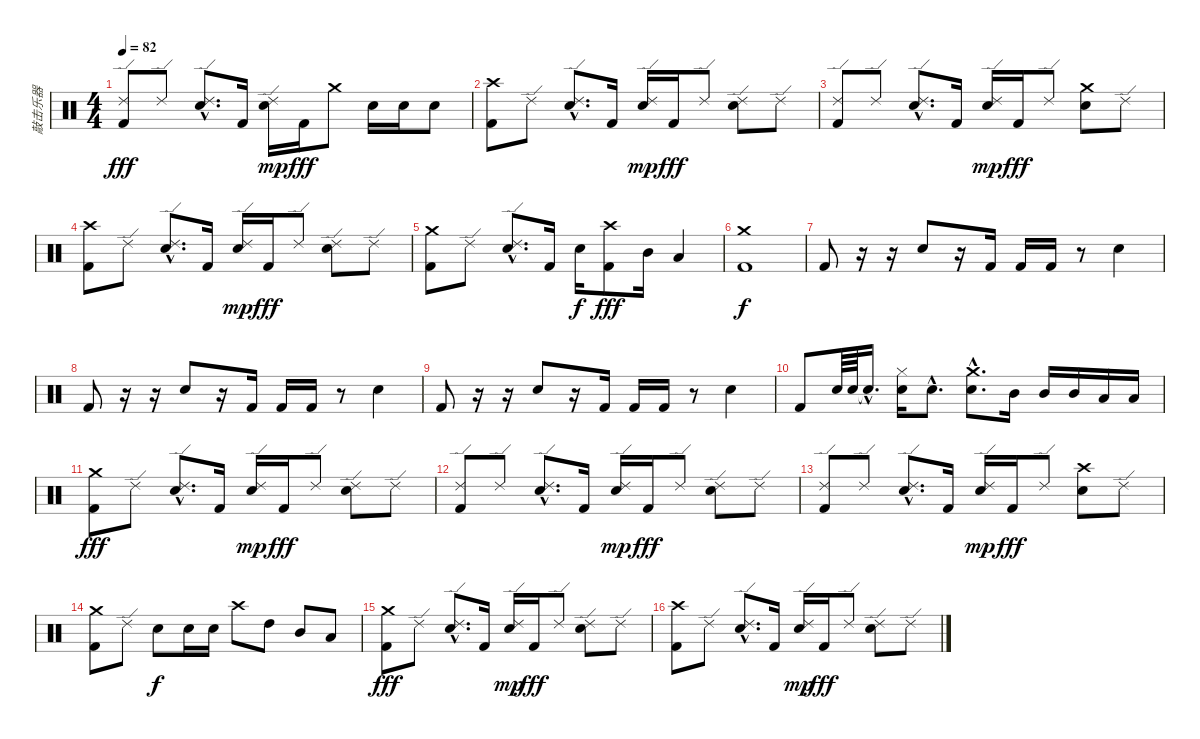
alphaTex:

\track ("敲击乐器" "敲击乐器") {instrument percussion}
\staff {score}
\articulation defaults
\ts (4 4)
\tempo 82
\clef neutral
\ks c
("Ride (edge) 2" "Kick (hit) 2").8{dy fff} "Ride (edge) 2".8 ("Ride (edge) 2"{hac} "Snare (hit) 2"{hac}).8{d} "Kick (hit) 2".16 ("Ride (edge) 2" "Snare (hit) 2").16{dy mp} "Kick (hit) 2".16{dy fff} "Crash medium (hit)".8 "Snare (hit) 2".16 "Snare (hit) 2".16 "Snare (hit) 2".8 |
("Crash high (hit)" "Kick (hit) 2").8 "Ride (edge) 2".8 ("Ride (edge) 2"{hac} "Snare (hit) 2"{hac}).8{d} "Kick (hit) 2".16 ("Ride (edge) 2" "Snare (hit) 2").16{dy mp} "Kick (hit) 2".16{dy fff} "Ride (edge) 2".8 ("Ride (edge) 2" "Snare (hit) 2").8 "Ride (edge) 2".8 |
("Ride (edge) 2" "Kick (hit) 2").8 "Ride (edge) 2".8 ("Ride (edge) 2"{hac} "Snare (hit) 2"{hac}).8{d} "Kick (hit) 2".16 ("Ride (edge) 2" "Snare (hit) 2").16{dy mp} "Kick (hit) 2".16{dy fff} "Ride (edge) 2".8 ("Crash medium (hit)" "Snare (hit) 2").8 "Ride (edge) 2".8 |
("Crash high (hit)" "Kick (hit) 2").8 "Ride (edge) 2".8 ("Ride (edge) 2"{hac} "Snare (hit) 2"{hac}).8{d} "Kick (hit) 2".16 ("Ride (edge) 2" "Snare (hit) 2").16{dy mp} "Kick (hit) 2".16{dy fff} "Ride (edge) 2".8 ("Ride (edge) 2" "Snare (hit) 2").8 "Ride (edge) 2".8 |
("Crash medium (hit)" "Kick (hit) 2").8 "Ride (edge) 2".8 ("Ride (edge) 2"{hac} "Snare (hit) 2"{hac}).8{d} "Kick (hit) 2".16 "Snare (hit) 2".16{dy f} ("Crash high (hit)" "Kick (hit) 2").8{dy fff} "Mid Tom (hit)".16 "Low Tom (hit)".4 |
("Crash medium (hit)" "Kick (hit) 2").1{dy f} |
"Kick (hit) 2".8 r.16 r.16 "Snare (hit) 2".8 r.16 "Kick (hit) 2".16 "Kick (hit) 2".16 "Kick (hit) 2".16 r.8 "Snare (hit) 2".4 |
"Kick (hit) 2".8 r.16 r.16 "Snare (hit) 2".8 r.16 "Kick (hit) 2".16 "Kick (hit) 2".16 "Kick (hit) 2".16 r.8 "Snare (hit) 2".4 |
"Kick (hit) 2".8 r.16 r.16 "Snare (hit) 2".8 r.16 "Kick (hit) 2".16 "Kick (hit) 2".16 "Kick (hit) 2".16 r.8 "Snare (hit) 2".4 |
"Kick (hit) 2".8 "Snare (hit) 2".64 "Snare (hit) 2".64 "Snare (hit)"{hac t}.16{d} ("Hi-Hat (closed)" "Snare (hit) 2").16 "Snare (hit) 2"{hac}.8{d} ("Crash medium (hit)"{hac} "Snare (hit) 2"{hac}).8{d} "Mid Tom (hit)".16 "Mid Tom (hit)".16 "Mid Tom (hit)".16 "Low Tom (hit)".16 "Low Tom (hit)".16 |
("Crash medium (hit)" "Kick (hit) 2").8{dy fff} "Ride (edge) 2".8 ("Ride (edge) 2"{hac} "Snare (hit) 2"{hac}).8{d} "Kick (hit) 2".16 ("Ride (edge) 2" "Snare (hit) 2").16{dy mp} "Kick (hit) 2".16{dy fff} "Ride (edge) 2".8 ("Ride (edge) 2" "Snare (hit) 2").8 "Ride (edge) 2".8 |
("Ride (edge) 2" "Kick (hit) 2").8 "Ride (edge) 2".8 ("Ride (edge) 2"{hac} "Snare (hit) 2"{hac}).8{d} "Kick (hit) 2".16 ("Ride (edge) 2" "Snare (hit) 2").16{dy mp} "Kick (hit) 2".16{dy fff} "Ride (edge) 2".8 ("Ride (edge) 2" "Snare (hit) 2").8 "Ride (edge) 2".8 |
("Ride (edge) 2" "Kick (hit) 2").8 "Ride (edge) 2".8 ("Ride (edge) 2"{hac} "Snare (hit) 2"{hac}).8{d} "Kick (hit) 2".16 ("Ride (edge) 2" "Snare (hit) 2").16{dy mp} "Kick (hit) 2".16{dy fff} "Ride (edge) 2".8 ("Crash high (hit)" "Snare (hit) 2").8 "Ride (edge) 2".8 |
("Crash medium (hit)" "Kick (hit) 2").8 "Ride (edge) 2".8 "Snare (hit) 2".8{dy f} "Snare (hit) 2".16 "Snare (hit) 2".16 "Crash high (hit)".8 "High Tom (hit)".8 "Mid Tom (hit)".8 "Low Tom (hit)".8 |
("Crash medium (hit)" "Kick (hit) 2").8{dy fff} "Ride (edge) 2".8 ("Ride (edge) 2"{hac} "Snare (hit) 2"{hac}).8{d} "Kick (hit) 2".16 ("Ride (edge) 2" "Snare (hit) 2").16{dy mp} "Kick (hit) 2".16{dy fff} "Ride (edge) 2".8 ("Ride (edge) 2" "Snare (hit) 2").8 "Ride (edge) 2".8 |
("Crash high (hit)" "Kick (hit) 2").8 "Ride (edge) 2".8 ("Ride (edge) 2"{hac} "Snare (hit) 2"{hac}).8{d} "Kick (hit) 2".16 ("Ride (edge) 2" "Snare (hit) 2").16{dy mp} "Kick (hit) 2".16{dy fff} "Ride (edge) 2".8 ("Ride (edge) 2" "Snare (hit) 2").8 "Ride (edge) 2".8
